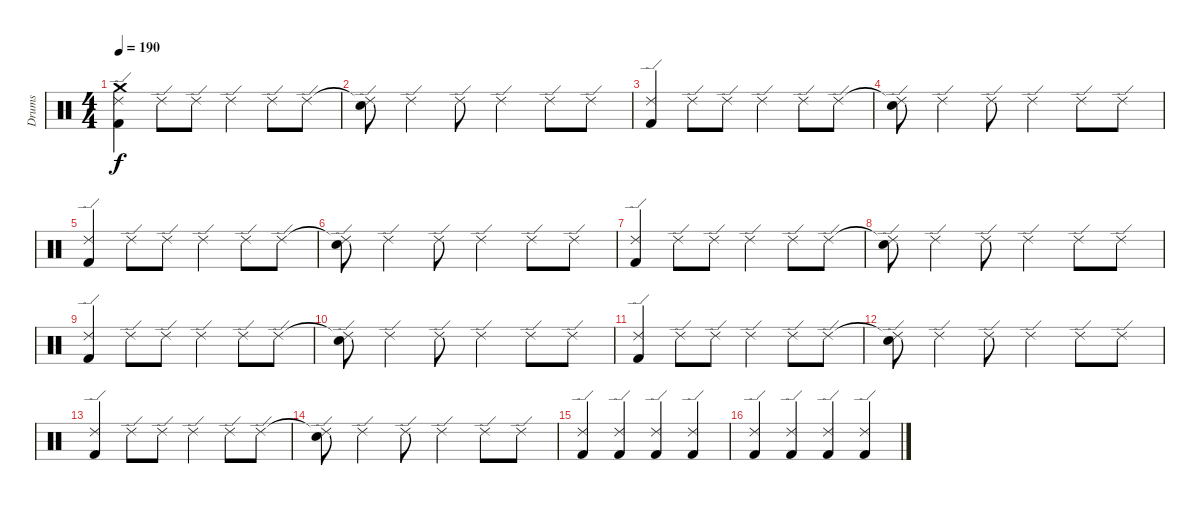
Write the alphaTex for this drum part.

\track ("Drums" "Drums") {instrument percussion}
\staff {score}
\articulation defaults
\ts (4 4)
\tempo 190
\clef neutral
\ks c
("Crash medium (hit)" "Ride (edge) 2" "Kick (hit) 2").4{dy f} "Ride (edge) 2".8 "Ride (edge) 2".8 "Ride (edge) 2".4 "Ride (edge) 2".8 "Ride (edge) 2".8 |
("Ride (edge) 2"{t} "Electric Snare (hit)").8 "Ride (edge) 2".4 "Ride (edge) 2".8 "Ride (edge) 2".4 "Ride (edge) 2".8 "Ride (edge) 2".8 |
("Ride (edge) 2" "Kick (hit) 2").4 "Ride (edge) 2".8 "Ride (edge) 2".8 "Ride (edge) 2".4 "Ride (edge) 2".8 "Ride (edge) 2".8 |
("Ride (edge) 2"{t} "Electric Snare (hit)").8 "Ride (edge) 2".4 "Ride (edge) 2".8 "Ride (edge) 2".4 "Ride (edge) 2".8 "Ride (edge) 2".8 |
("Ride (edge) 2" "Kick (hit) 2").4 "Ride (edge) 2".8 "Ride (edge) 2".8 "Ride (edge) 2".4 "Ride (edge) 2".8 "Ride (edge) 2".8 |
("Ride (edge) 2"{t} "Electric Snare (hit)").8 "Ride (edge) 2".4 "Ride (edge) 2".8 "Ride (edge) 2".4 "Ride (edge) 2".8 "Ride (edge) 2".8 |
("Ride (edge) 2" "Kick (hit) 2").4 "Ride (edge) 2".8 "Ride (edge) 2".8 "Ride (edge) 2".4 "Ride (edge) 2".8 "Ride (edge) 2".8 |
("Ride (edge) 2"{t} "Electric Snare (hit)").8 "Ride (edge) 2".4 "Ride (edge) 2".8 "Ride (edge) 2".4 "Ride (edge) 2".8 "Ride (edge) 2".8 |
("Ride (edge) 2" "Kick (hit) 2").4 "Ride (edge) 2".8 "Ride (edge) 2".8 "Ride (edge) 2".4 "Ride (edge) 2".8 "Ride (edge) 2".8 |
("Ride (edge) 2"{t} "Electric Snare (hit)").8 "Ride (edge) 2".4 "Ride (edge) 2".8 "Ride (edge) 2".4 "Ride (edge) 2".8 "Ride (edge) 2".8 |
("Ride (edge) 2" "Kick (hit) 2").4 "Ride (edge) 2".8 "Ride (edge) 2".8 "Ride (edge) 2".4 "Ride (edge) 2".8 "Ride (edge) 2".8 |
("Ride (edge) 2"{t} "Electric Snare (hit)").8 "Ride (edge) 2".4 "Ride (edge) 2".8 "Ride (edge) 2".4 "Ride (edge) 2".8 "Ride (edge) 2".8 |
("Ride (edge) 2" "Kick (hit) 2").4 "Ride (edge) 2".8 "Ride (edge) 2".8 "Ride (edge) 2".4 "Ride (edge) 2".8 "Ride (edge) 2".8 |
("Ride (edge) 2"{t} "Electric Snare (hit)").8 "Ride (edge) 2".4 "Ride (edge) 2".8 "Ride (edge) 2".4 "Ride (edge) 2".8 "Ride (edge) 2".8 |
("Ride (edge) 2" "Kick (hit) 2").4 ("Ride (edge) 2" "Kick (hit) 2").4 ("Ride (edge) 2" "Kick (hit) 2").4 ("Ride (edge) 2" "Kick (hit) 2").4 |
("Ride (edge) 2" "Kick (hit) 2").4 ("Ride (edge) 2" "Kick (hit) 2").4 ("Ride (edge) 2" "Kick (hit) 2").4 ("Ride (edge) 2" "Kick (hit) 2").4
